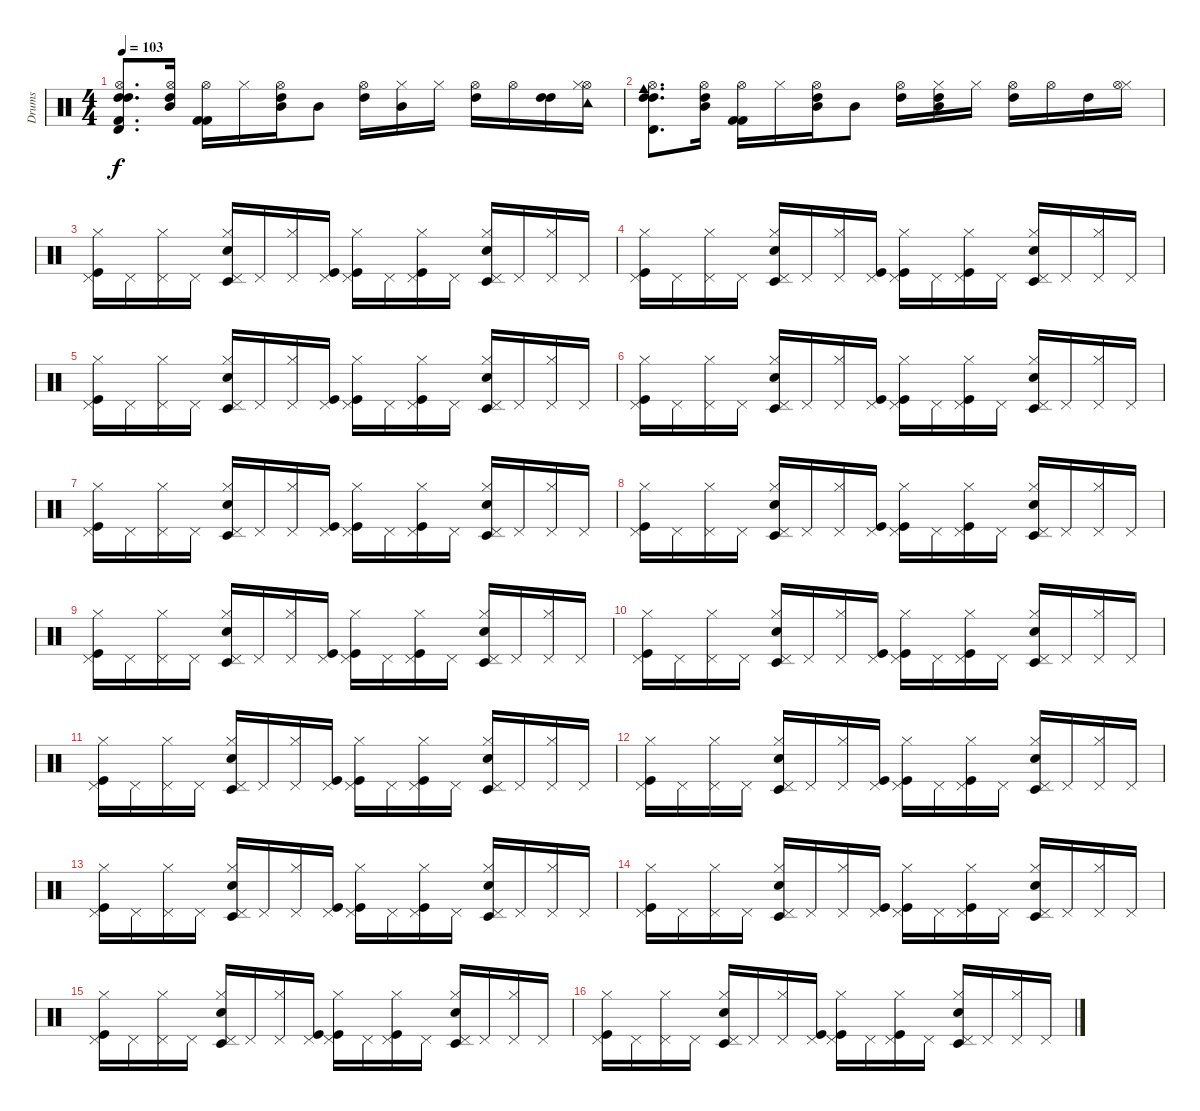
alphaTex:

\track ("Drums" "Drums") {instrument percussion}
\staff {score}
\articulation defaults
\ts (4 4)
\tempo 103
\clef neutral
\ks c
("High Tom (hit)" "Kick (hit) 2" "Hi-Hat (open)" "High Tom (hit)" "Timbale high (hit)").8{d dy f} ("Mid Tom (hit)" "Hi-Hat (open)" "High Tom (hit)").16 ("Hi-Hat (open)" "Kick (hit) 2" "Kick (hit) 2").16 "Hi-Hat (closed)".16 ("Mid Tom (hit)" "Hi-Hat (open)" "High Tom (hit)").16 "Mid Tom (hit)".8 ("High Tom (hit)" "Hi-Hat (open)").16 ("Hi-Hat (closed)" "Mid Tom (hit)").16 "Hi-Hat (closed)".16 ("Hi-Hat (open)" "High Tom (hit)").16 "Hi-Hat (open)".16 ("High Tom (hit)" "High Tom (hit)").16 ("Tambourine (hit)" "Hi-Hat (open)" "Hi-Hat (closed)").16 |
("Cowbell medium (hit)" "High Tom (hit)" "High Tom (hit)" "Timbale high (hit)" "Hi-Hat (open)").8{d} ("Mid Tom (hit)" "Hi-Hat (open)" "High Tom (hit)").16 ("Kick (hit) 2" "Hi-Hat (open)" "Kick (hit) 2").16 "Hi-Hat (closed)".16 ("Mid Tom (hit)" "High Tom (hit)" "Hi-Hat (open)").16 "Mid Tom (hit)".8 ("High Tom (hit)" "Hi-Hat (open)").16 ("Mid Tom (hit)" "Hi-Hat (closed)" "High Tom (hit)").16 "Hi-Hat (closed)".16 ("High Tom (hit)" "Hi-Hat (open)").16 "Hi-Hat (open)".16 "High Tom (hit)".16 ("Hi-Hat (closed)" "Hi-Hat (open)").16 |
("Kick (hit)" "Hi-Hat (closed)" "Pedal Hi-Hat (hit)").16 "Pedal Hi-Hat (hit)".16 ("Pedal Hi-Hat (hit)" "Hi-Hat (closed)").16 "Pedal Hi-Hat (hit)".16 ("Hi-Hat (closed)" "Electric Snare (hit)" "Timbale low (hit)" "Pedal Hi-Hat (hit)").16 "Pedal Hi-Hat (hit)".16 ("Pedal Hi-Hat (hit)" "Hi-Hat (closed)").16 ("Kick (hit)" "Pedal Hi-Hat (hit)").16 ("Kick (hit)" "Hi-Hat (closed)" "Pedal Hi-Hat (hit)").16 "Pedal Hi-Hat (hit)".16 ("Pedal Hi-Hat (hit)" "Hi-Hat (closed)" "Kick (hit)").16 "Pedal Hi-Hat (hit)".16 ("Timbale low (hit)" "Hi-Hat (closed)" "Electric Snare (hit)" "Pedal Hi-Hat (hit)").16 "Pedal Hi-Hat (hit)".16 ("Pedal Hi-Hat (hit)" "Hi-Hat (closed)").16 "Pedal Hi-Hat (hit)".16 |
("Pedal Hi-Hat (hit)" "Hi-Hat (closed)" "Kick (hit)").16 "Pedal Hi-Hat (hit)".16 ("Pedal Hi-Hat (hit)" "Hi-Hat (closed)").16 "Pedal Hi-Hat (hit)".16 ("Hi-Hat (closed)" "Electric Snare (hit)" "Pedal Hi-Hat (hit)" "Timbale low (hit)").16 "Pedal Hi-Hat (hit)".16 ("Hi-Hat (closed)" "Pedal Hi-Hat (hit)").16 ("Pedal Hi-Hat (hit)" "Kick (hit)").16 ("Pedal Hi-Hat (hit)" "Hi-Hat (closed)" "Kick (hit)").16 "Pedal Hi-Hat (hit)".16 ("Pedal Hi-Hat (hit)" "Hi-Hat (closed)" "Kick (hit)").16 "Pedal Hi-Hat (hit)".16 ("Electric Snare (hit)" "Timbale low (hit)" "Hi-Hat (closed)" "Pedal Hi-Hat (hit)").16 "Pedal Hi-Hat (hit)".16 ("Pedal Hi-Hat (hit)" "Hi-Hat (closed)").16 "Pedal Hi-Hat (hit)".16 |
("Hi-Hat (closed)" "Kick (hit)" "Pedal Hi-Hat (hit)").16 "Pedal Hi-Hat (hit)".16 ("Hi-Hat (closed)" "Pedal Hi-Hat (hit)").16 "Pedal Hi-Hat (hit)".16 ("Timbale low (hit)" "Hi-Hat (closed)" "Electric Snare (hit)" "Pedal Hi-Hat (hit)").16 "Pedal Hi-Hat (hit)".16 ("Hi-Hat (closed)" "Pedal Hi-Hat (hit)").16 ("Pedal Hi-Hat (hit)" "Kick (hit)").16 ("Kick (hit)" "Hi-Hat (closed)" "Pedal Hi-Hat (hit)").16 "Pedal Hi-Hat (hit)".16 ("Kick (hit)" "Pedal Hi-Hat (hit)" "Hi-Hat (closed)").16 "Pedal Hi-Hat (hit)".16 ("Timbale low (hit)" "Electric Snare (hit)" "Hi-Hat (closed)" "Pedal Hi-Hat (hit)").16 "Pedal Hi-Hat (hit)".16 ("Hi-Hat (closed)" "Pedal Hi-Hat (hit)").16 "Pedal Hi-Hat (hit)".16 |
("Pedal Hi-Hat (hit)" "Kick (hit)" "Hi-Hat (closed)").16 "Pedal Hi-Hat (hit)".16 ("Pedal Hi-Hat (hit)" "Hi-Hat (closed)").16 "Pedal Hi-Hat (hit)".16 ("Hi-Hat (closed)" "Electric Snare (hit)" "Timbale low (hit)" "Pedal Hi-Hat (hit)").16 "Pedal Hi-Hat (hit)".16 ("Hi-Hat (closed)" "Pedal Hi-Hat (hit)").16 ("Kick (hit)" "Pedal Hi-Hat (hit)").16 ("Pedal Hi-Hat (hit)" "Hi-Hat (closed)" "Kick (hit)").16 "Pedal Hi-Hat (hit)".16 ("Pedal Hi-Hat (hit)" "Hi-Hat (closed)" "Kick (hit)").16 "Pedal Hi-Hat (hit)".16 ("Electric Snare (hit)" "Hi-Hat (closed)" "Timbale low (hit)" "Pedal Hi-Hat (hit)").16 "Pedal Hi-Hat (hit)".16 ("Hi-Hat (closed)" "Pedal Hi-Hat (hit)").16 "Pedal Hi-Hat (hit)".16 |
("Pedal Hi-Hat (hit)" "Hi-Hat (closed)" "Kick (hit)").16 "Pedal Hi-Hat (hit)".16 ("Pedal Hi-Hat (hit)" "Hi-Hat (closed)").16 "Pedal Hi-Hat (hit)".16 ("Pedal Hi-Hat (hit)" "Hi-Hat (closed)" "Timbale low (hit)" "Electric Snare (hit)").16 "Pedal Hi-Hat (hit)".16 ("Pedal Hi-Hat (hit)" "Hi-Hat (closed)").16 ("Pedal Hi-Hat (hit)" "Kick (hit)").16 ("Pedal Hi-Hat (hit)" "Hi-Hat (closed)" "Kick (hit)").16 "Pedal Hi-Hat (hit)".16 ("Pedal Hi-Hat (hit)" "Hi-Hat (closed)" "Kick (hit)").16 "Pedal Hi-Hat (hit)".16 ("Pedal Hi-Hat (hit)" "Timbale low (hit)" "Electric Snare (hit)" "Hi-Hat (closed)").16 "Pedal Hi-Hat (hit)".16 ("Pedal Hi-Hat (hit)" "Hi-Hat (closed)").16 "Pedal Hi-Hat (hit)".16 |
("Pedal Hi-Hat (hit)" "Hi-Hat (closed)" "Kick (hit)").16 "Pedal Hi-Hat (hit)".16 ("Pedal Hi-Hat (hit)" "Hi-Hat (closed)").16 "Pedal Hi-Hat (hit)".16 ("Pedal Hi-Hat (hit)" "Timbale low (hit)" "Hi-Hat (closed)" "Electric Snare (hit)").16 "Pedal Hi-Hat (hit)".16 ("Pedal Hi-Hat (hit)" "Hi-Hat (closed)").16 ("Pedal Hi-Hat (hit)" "Kick (hit)").16 ("Pedal Hi-Hat (hit)" "Hi-Hat (closed)" "Kick (hit)").16 "Pedal Hi-Hat (hit)".16 ("Pedal Hi-Hat (hit)" "Hi-Hat (closed)" "Kick (hit)").16 "Pedal Hi-Hat (hit)".16 ("Pedal Hi-Hat (hit)" "Electric Snare (hit)" "Hi-Hat (closed)" "Timbale low (hit)").16 "Pedal Hi-Hat (hit)".16 ("Pedal Hi-Hat (hit)" "Hi-Hat (closed)").16 "Pedal Hi-Hat (hit)".16 |
("Pedal Hi-Hat (hit)" "Hi-Hat (closed)" "Kick (hit)").16 "Pedal Hi-Hat (hit)".16 ("Pedal Hi-Hat (hit)" "Hi-Hat (closed)").16 "Pedal Hi-Hat (hit)".16 ("Pedal Hi-Hat (hit)" "Timbale low (hit)" "Hi-Hat (closed)" "Electric Snare (hit)").16 "Pedal Hi-Hat (hit)".16 ("Pedal Hi-Hat (hit)" "Hi-Hat (closed)").16 ("Pedal Hi-Hat (hit)" "Kick (hit)").16 ("Pedal Hi-Hat (hit)" "Kick (hit)" "Hi-Hat (closed)").16 "Pedal Hi-Hat (hit)".16 ("Pedal Hi-Hat (hit)" "Kick (hit)" "Hi-Hat (closed)").16 "Pedal Hi-Hat (hit)".16 ("Pedal Hi-Hat (hit)" "Timbale low (hit)" "Electric Snare (hit)" "Hi-Hat (closed)").16 "Pedal Hi-Hat (hit)".16 ("Pedal Hi-Hat (hit)" "Hi-Hat (closed)").16 "Pedal Hi-Hat (hit)".16 |
("Pedal Hi-Hat (hit)" "Hi-Hat (closed)" "Kick (hit)").16 "Pedal Hi-Hat (hit)".16 ("Pedal Hi-Hat (hit)" "Hi-Hat (closed)").16 "Pedal Hi-Hat (hit)".16 ("Pedal Hi-Hat (hit)" "Hi-Hat (closed)" "Electric Snare (hit)" "Timbale low (hit)").16 "Pedal Hi-Hat (hit)".16 ("Pedal Hi-Hat (hit)" "Hi-Hat (closed)").16 ("Pedal Hi-Hat (hit)" "Kick (hit)").16 ("Pedal Hi-Hat (hit)" "Kick (hit)" "Hi-Hat (closed)").16 "Pedal Hi-Hat (hit)".16 ("Pedal Hi-Hat (hit)" "Kick (hit)" "Hi-Hat (closed)").16 "Pedal Hi-Hat (hit)".16 ("Pedal Hi-Hat (hit)" "Electric Snare (hit)" "Hi-Hat (closed)" "Timbale low (hit)").16 "Pedal Hi-Hat (hit)".16 ("Pedal Hi-Hat (hit)" "Hi-Hat (closed)").16 "Pedal Hi-Hat (hit)".16 |
("Hi-Hat (closed)" "Kick (hit)" "Pedal Hi-Hat (hit)").16 "Pedal Hi-Hat (hit)".16 ("Hi-Hat (closed)" "Pedal Hi-Hat (hit)").16 "Pedal Hi-Hat (hit)".16 ("Hi-Hat (closed)" "Timbale low (hit)" "Electric Snare (hit)" "Pedal Hi-Hat (hit)").16 "Pedal Hi-Hat (hit)".16 ("Hi-Hat (closed)" "Pedal Hi-Hat (hit)").16 ("Kick (hit)" "Pedal Hi-Hat (hit)").16 ("Hi-Hat (closed)" "Kick (hit)" "Pedal Hi-Hat (hit)").16 "Pedal Hi-Hat (hit)".16 ("Hi-Hat (closed)" "Kick (hit)" "Pedal Hi-Hat (hit)").16 "Pedal Hi-Hat (hit)".16 ("Timbale low (hit)" "Electric Snare (hit)" "Hi-Hat (closed)" "Pedal Hi-Hat (hit)").16 "Pedal Hi-Hat (hit)".16 ("Hi-Hat (closed)" "Pedal Hi-Hat (hit)").16 "Pedal Hi-Hat (hit)".16 |
("Hi-Hat (closed)" "Kick (hit)" "Pedal Hi-Hat (hit)").16 "Pedal Hi-Hat (hit)".16 ("Hi-Hat (closed)" "Pedal Hi-Hat (hit)").16 "Pedal Hi-Hat (hit)".16 ("Timbale low (hit)" "Hi-Hat (closed)" "Electric Snare (hit)" "Pedal Hi-Hat (hit)").16 "Pedal Hi-Hat (hit)".16 ("Hi-Hat (closed)" "Pedal Hi-Hat (hit)").16 ("Kick (hit)" "Pedal Hi-Hat (hit)").16 ("Hi-Hat (closed)" "Kick (hit)" "Pedal Hi-Hat (hit)").16 "Pedal Hi-Hat (hit)".16 ("Hi-Hat (closed)" "Kick (hit)" "Pedal Hi-Hat (hit)").16 "Pedal Hi-Hat (hit)".16 ("Electric Snare (hit)" "Hi-Hat (closed)" "Timbale low (hit)" "Pedal Hi-Hat (hit)").16 "Pedal Hi-Hat (hit)".16 ("Hi-Hat (closed)" "Pedal Hi-Hat (hit)").16 "Pedal Hi-Hat (hit)".16 |
("Hi-Hat (closed)" "Kick (hit)" "Pedal Hi-Hat (hit)").16 "Pedal Hi-Hat (hit)".16 ("Hi-Hat (closed)" "Pedal Hi-Hat (hit)").16 "Pedal Hi-Hat (hit)".16 ("Timbale low (hit)" "Hi-Hat (closed)" "Electric Snare (hit)" "Pedal Hi-Hat (hit)").16 "Pedal Hi-Hat (hit)".16 ("Hi-Hat (closed)" "Pedal Hi-Hat (hit)").16 ("Kick (hit)" "Pedal Hi-Hat (hit)").16 ("Kick (hit)" "Hi-Hat (closed)" "Pedal Hi-Hat (hit)").16 "Pedal Hi-Hat (hit)".16 ("Kick (hit)" "Hi-Hat (closed)" "Pedal Hi-Hat (hit)").16 "Pedal Hi-Hat (hit)".16 ("Timbale low (hit)" "Electric Snare (hit)" "Hi-Hat (closed)" "Pedal Hi-Hat (hit)").16 "Pedal Hi-Hat (hit)".16 ("Hi-Hat (closed)" "Pedal Hi-Hat (hit)").16 "Pedal Hi-Hat (hit)".16 |
("Hi-Hat (closed)" "Kick (hit)" "Pedal Hi-Hat (hit)").16 "Pedal Hi-Hat (hit)".16 ("Hi-Hat (closed)" "Pedal Hi-Hat (hit)").16 "Pedal Hi-Hat (hit)".16 ("Hi-Hat (closed)" "Electric Snare (hit)" "Timbale low (hit)" "Pedal Hi-Hat (hit)").16 "Pedal Hi-Hat (hit)".16 ("Hi-Hat (closed)" "Pedal Hi-Hat (hit)").16 ("Kick (hit)" "Pedal Hi-Hat (hit)").16 ("Kick (hit)" "Hi-Hat (closed)" "Pedal Hi-Hat (hit)").16 "Pedal Hi-Hat (hit)".16 ("Kick (hit)" "Hi-Hat (closed)" "Pedal Hi-Hat (hit)").16 "Pedal Hi-Hat (hit)".16 ("Electric Snare (hit)" "Hi-Hat (closed)" "Timbale low (hit)" "Pedal Hi-Hat (hit)").16 "Pedal Hi-Hat (hit)".16 ("Hi-Hat (closed)" "Pedal Hi-Hat (hit)").16 "Pedal Hi-Hat (hit)".16 |
("Pedal Hi-Hat (hit)" "Hi-Hat (closed)" "Kick (hit)").16 "Pedal Hi-Hat (hit)".16 ("Pedal Hi-Hat (hit)" "Hi-Hat (closed)").16 "Pedal Hi-Hat (hit)".16 ("Pedal Hi-Hat (hit)" "Hi-Hat (closed)" "Timbale low (hit)" "Electric Snare (hit)").16 "Pedal Hi-Hat (hit)".16 ("Pedal Hi-Hat (hit)" "Hi-Hat (closed)").16 ("Pedal Hi-Hat (hit)" "Kick (hit)").16 ("Pedal Hi-Hat (hit)" "Hi-Hat (closed)" "Kick (hit)").16 "Pedal Hi-Hat (hit)".16 ("Pedal Hi-Hat (hit)" "Hi-Hat (closed)" "Kick (hit)").16 "Pedal Hi-Hat (hit)".16 ("Pedal Hi-Hat (hit)" "Timbale low (hit)" "Electric Snare (hit)" "Hi-Hat (closed)").16 "Pedal Hi-Hat (hit)".16 ("Pedal Hi-Hat (hit)" "Hi-Hat (closed)").16 "Pedal Hi-Hat (hit)".16 |
("Pedal Hi-Hat (hit)" "Hi-Hat (closed)" "Kick (hit)").16 "Pedal Hi-Hat (hit)".16 ("Pedal Hi-Hat (hit)" "Hi-Hat (closed)").16 "Pedal Hi-Hat (hit)".16 ("Pedal Hi-Hat (hit)" "Timbale low (hit)" "Hi-Hat (closed)" "Electric Snare (hit)").16 "Pedal Hi-Hat (hit)".16 ("Pedal Hi-Hat (hit)" "Hi-Hat (closed)").16 ("Pedal Hi-Hat (hit)" "Kick (hit)").16 ("Pedal Hi-Hat (hit)" "Hi-Hat (closed)" "Kick (hit)").16 "Pedal Hi-Hat (hit)".16 ("Pedal Hi-Hat (hit)" "Hi-Hat (closed)" "Kick (hit)").16 "Pedal Hi-Hat (hit)".16 ("Pedal Hi-Hat (hit)" "Electric Snare (hit)" "Hi-Hat (closed)" "Timbale low (hit)").16 "Pedal Hi-Hat (hit)".16 ("Pedal Hi-Hat (hit)" "Hi-Hat (closed)").16 "Pedal Hi-Hat (hit)".16
